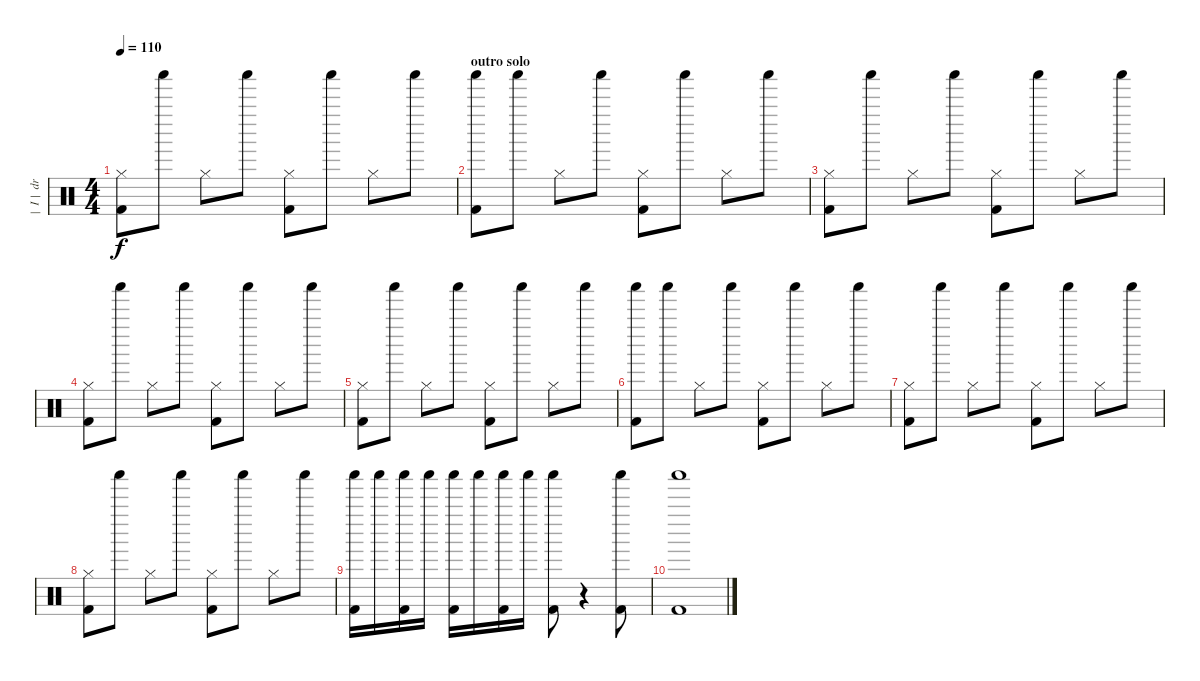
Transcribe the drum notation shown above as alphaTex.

\track ("|  I |  drum" "|  I |  dr") {instrument percussion}
\staff {score}
\articulation defaults
\ts (4 4)
\tempo 110
\clef neutral
\ks c
("Kick (hit) 2" "Hi-Hat (closed)").8{dy f} "Shaker (hit)".8 "Hi-Hat (closed)".8 "Shaker (hit)".8 ("Kick (hit) 2" "Hi-Hat (closed)").8 "Shaker (hit)".8 "Hi-Hat (closed)".8 "Shaker (hit)".8 |
\section ("" "outro solo")
("Kick (hit) 2" "Shaker (hit)").8 "Shaker (hit)".8 "Hi-Hat (closed)".8 "Shaker (hit)".8 ("Kick (hit) 2" "Hi-Hat (closed)").8 "Shaker (hit)".8 "Hi-Hat (closed)".8 "Shaker (hit)".8 |
("Kick (hit) 2" "Hi-Hat (closed)").8 "Shaker (hit)".8 "Hi-Hat (closed)".8 "Shaker (hit)".8 ("Kick (hit) 2" "Hi-Hat (closed)").8 "Shaker (hit)".8 "Hi-Hat (closed)".8 "Shaker (hit)".8 |
("Kick (hit) 2" "Hi-Hat (closed)").8 "Shaker (hit)".8 "Hi-Hat (closed)".8 "Shaker (hit)".8 ("Kick (hit) 2" "Hi-Hat (closed)").8 "Shaker (hit)".8 "Hi-Hat (closed)".8 "Shaker (hit)".8 |
("Kick (hit) 2" "Hi-Hat (closed)").8 "Shaker (hit)".8 "Hi-Hat (closed)".8 "Shaker (hit)".8 ("Kick (hit) 2" "Hi-Hat (closed)").8 "Shaker (hit)".8 "Hi-Hat (closed)".8 "Shaker (hit)".8 |
("Kick (hit) 2" "Shaker (hit)").8 "Shaker (hit)".8 "Hi-Hat (closed)".8 "Shaker (hit)".8 ("Kick (hit) 2" "Hi-Hat (closed)").8 "Shaker (hit)".8 "Hi-Hat (closed)".8 "Shaker (hit)".8 |
("Kick (hit) 2" "Hi-Hat (closed)").8 "Shaker (hit)".8 "Hi-Hat (closed)".8 "Shaker (hit)".8 ("Kick (hit) 2" "Hi-Hat (closed)").8 "Shaker (hit)".8 "Hi-Hat (closed)".8 "Shaker (hit)".8 |
("Kick (hit) 2" "Hi-Hat (closed)").8 "Shaker (hit)".8 "Hi-Hat (closed)".8 "Shaker (hit)".8 ("Kick (hit) 2" "Hi-Hat (closed)").8 "Shaker (hit)".8 "Hi-Hat (closed)".8 "Shaker (hit)".8 |
("Kick (hit) 2" "Shaker (hit)").16 "Shaker (hit)".16 ("Kick (hit) 2" "Shaker (hit)").16 "Shaker (hit)".16 ("Kick (hit) 2" "Shaker (hit)").16 "Shaker (hit)".16 ("Kick (hit) 2" "Shaker (hit)").16 "Shaker (hit)".16 ("Kick (hit) 2" "Shaker (hit)").8 r.4 ("Kick (hit) 2" "Shaker (hit)").8 |
("Kick (hit) 2" "Shaker (hit)").1
